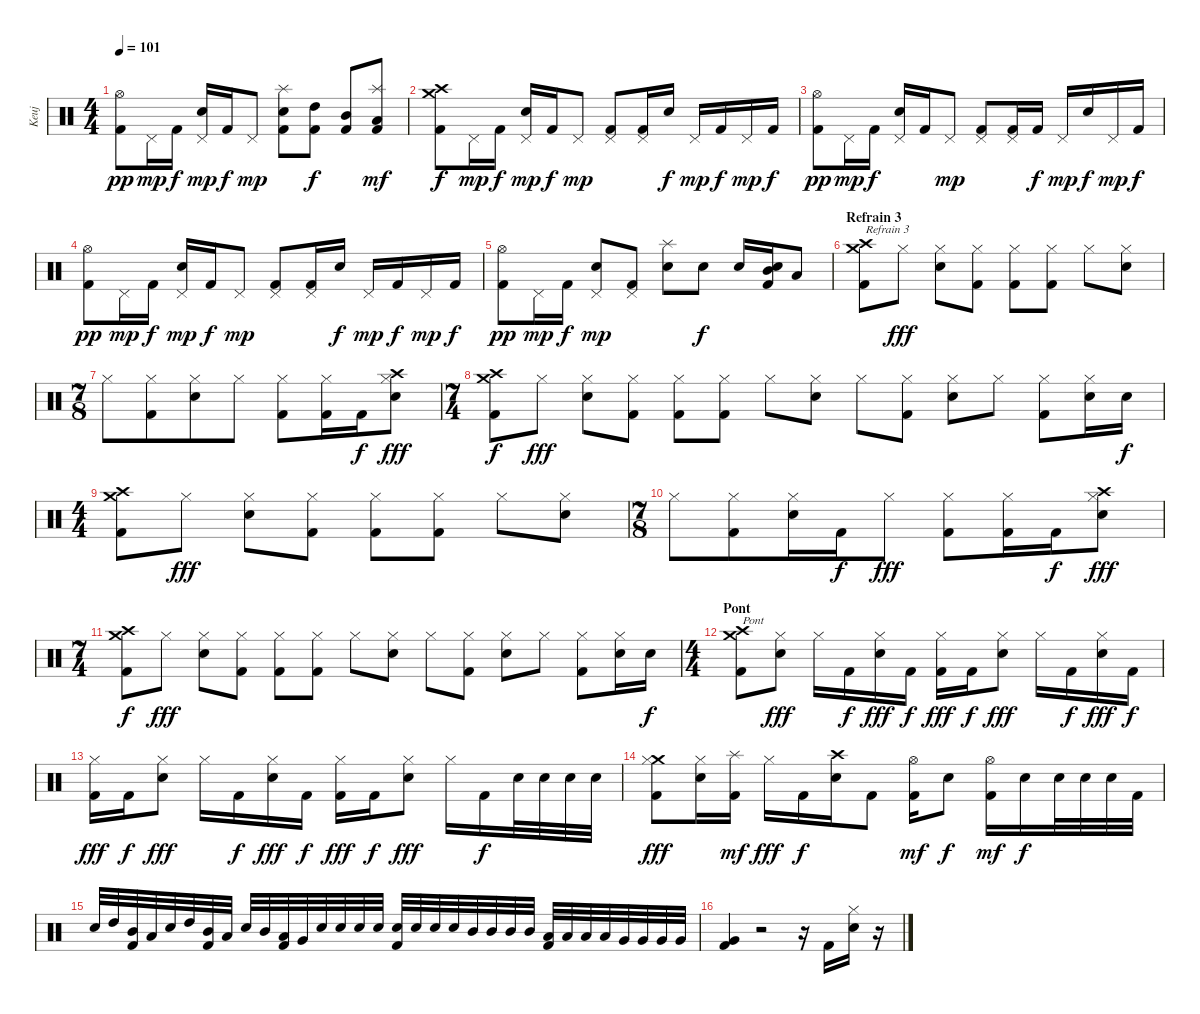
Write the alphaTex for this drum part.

\track ("Keuj" "Keuj") {instrument percussion}
\staff {score}
\articulation defaults
\ts (4 4)
\tempo 101
\clef neutral
\ks c
("Hi-Hat (open)" "Kick (hit) 2").8{dy pp} "Pedal Hi-Hat (hit)".16{dy mp} "Kick (hit) 2".16{dy f} ("Electric Snare (hit)" "Pedal Hi-Hat (hit)").16{dy mp} "Kick (hit) 2".16{dy f} "Pedal Hi-Hat (hit)".8{dy mp} ("Splash (hit)" "Electric Snare (hit)" "Kick (hit) 2").8 ("High Tom (hit)" "Kick (hit) 2").8{dy f} ("Mid Tom (hit)" "Kick (hit) 2").8 ("Splash (hit)" "Low Tom (hit)" "Kick (hit) 2").8{dy mf} |
("Crash medium (hit)" "Crash high (hit)" "Kick (hit) 2").8{dy f} "Pedal Hi-Hat (hit)".16{dy mp} "Kick (hit) 2".16{dy f} ("Electric Snare (hit)" "Pedal Hi-Hat (hit)").16{dy mp} "Kick (hit) 2".16{dy f} "Pedal Hi-Hat (hit)".8{dy mp} ("Pedal Hi-Hat (hit)" "Kick (hit) 2").8 ("Pedal Hi-Hat (hit)" "Kick (hit) 2").16 "Electric Snare (hit)".16{dy f} "Pedal Hi-Hat (hit)".16{dy mp} "Kick (hit) 2".16{dy f} "Pedal Hi-Hat (hit)".16{dy mp} "Kick (hit) 2".16{dy f} |
("Hi-Hat (open)" "Kick (hit) 2").8{dy pp} "Pedal Hi-Hat (hit)".16{dy mp} "Kick (hit) 2".16{dy f} ("Electric Snare (hit)" "Pedal Hi-Hat (hit)").16 "Kick (hit) 2".16 "Pedal Hi-Hat (hit)".8{dy mp} ("Pedal Hi-Hat (hit)" "Kick (hit) 2").8 ("Pedal Hi-Hat (hit)" "Kick (hit) 2").16 "Kick (hit) 2".16{dy f} "Pedal Hi-Hat (hit)".16{dy mp} "Electric Snare (hit)".16{dy f} "Pedal Hi-Hat (hit)".16{dy mp} "Kick (hit) 2".16{dy f} |
("Hi-Hat (open)" "Kick (hit) 2").8{dy pp} "Pedal Hi-Hat (hit)".16{dy mp} "Kick (hit) 2".16{dy f} ("Electric Snare (hit)" "Pedal Hi-Hat (hit)").16{dy mp} "Kick (hit) 2".16{dy f} "Pedal Hi-Hat (hit)".8{dy mp} ("Pedal Hi-Hat (hit)" "Kick (hit) 2").8 ("Pedal Hi-Hat (hit)" "Kick (hit) 2").16 "Electric Snare (hit)".16{dy f} "Pedal Hi-Hat (hit)".16{dy mp} "Kick (hit) 2".16{dy f} "Pedal Hi-Hat (hit)".16{dy mp} "Kick (hit) 2".16{dy f} |
("Hi-Hat (open)" "Kick (hit) 2").8{dy pp} "Pedal Hi-Hat (hit)".16{dy mp} "Kick (hit) 2".16{dy f} ("Electric Snare (hit)" "Pedal Hi-Hat (hit)").8{dy mp} ("Pedal Hi-Hat (hit)" "Kick (hit) 2").8 ("Splash (hit)" "Electric Snare (hit)").8 "Electric Snare (hit)".8{dy f} "Electric Snare (hit)".16 ("Mid Tom (hit)" "Electric Snare (hit)" "Kick (hit) 2").16 "Low Tom (hit)".8 |
\section ("" "Refrain 3")
("Crash medium (hit)" "Crash high (hit)" "Kick (hit) 2").8{txt "Refrain 3"} "Hi-Hat (closed)".8{dy fff} ("Electric Snare (hit)" "Hi-Hat (closed)").8 ("Hi-Hat (closed)" "Kick (hit) 2").8 ("Hi-Hat (closed)" "Kick (hit) 2").8 ("Hi-Hat (closed)" "Kick (hit) 2").8 "Hi-Hat (closed)".8 ("Electric Snare (hit)" "Hi-Hat (closed)").8 |
\ts (7 8)
"Hi-Hat (closed)".8 ("Hi-Hat (closed)" "Kick (hit) 2").8 ("Electric Snare (hit)" "Hi-Hat (closed)").8 "Hi-Hat (closed)".8 ("Hi-Hat (closed)" "Kick (hit) 2").8 ("Hi-Hat (closed)" "Kick (hit) 2").16 "Kick (hit) 2".16{dy f} ("Crash high (hit)" "Electric Snare (hit)" "Hi-Hat (closed)").8{dy fff} |
\ts (7 4)
("Crash medium (hit)" "Crash high (hit)" "Kick (hit) 2").8{dy f} "Hi-Hat (closed)".8{dy fff} ("Electric Snare (hit)" "Hi-Hat (closed)").8 ("Hi-Hat (closed)" "Kick (hit) 2").8 ("Hi-Hat (closed)" "Kick (hit) 2").8 ("Hi-Hat (closed)" "Kick (hit) 2").8 "Hi-Hat (closed)".8 ("Electric Snare (hit)" "Hi-Hat (closed)").8 "Hi-Hat (closed)".8 ("Hi-Hat (closed)" "Kick (hit) 2").8 ("Electric Snare (hit)" "Hi-Hat (closed)").8 "Hi-Hat (closed)".8 ("Hi-Hat (closed)" "Kick (hit) 2").8 ("Electric Snare (hit)" "Hi-Hat (closed)").16 "Electric Snare (hit)".16{dy f} |
\ts (4 4)
("Crash medium (hit)" "Crash high (hit)" "Kick (hit) 2").8 "Hi-Hat (closed)".8{dy fff} ("Electric Snare (hit)" "Hi-Hat (closed)").8 ("Hi-Hat (closed)" "Kick (hit) 2").8 ("Hi-Hat (closed)" "Kick (hit) 2").8 ("Hi-Hat (closed)" "Kick (hit) 2").8 "Hi-Hat (closed)".8 ("Electric Snare (hit)" "Hi-Hat (closed)").8 |
\ts (7 8)
"Hi-Hat (closed)".8 ("Hi-Hat (closed)" "Kick (hit) 2").8 ("Electric Snare (hit)" "Hi-Hat (closed)").16 "Kick (hit) 2".16{dy f} "Hi-Hat (closed)".8{dy fff} ("Hi-Hat (closed)" "Kick (hit) 2").8 ("Hi-Hat (closed)" "Kick (hit) 2").16 "Kick (hit) 2".16{dy f} ("Crash high (hit)" "Electric Snare (hit)" "Hi-Hat (closed)").8{dy fff} |
\ts (7 4)
("Crash medium (hit)" "Crash high (hit)" "Kick (hit) 2").8{dy f} "Hi-Hat (closed)".8{dy fff} ("Electric Snare (hit)" "Hi-Hat (closed)").8 ("Hi-Hat (closed)" "Kick (hit) 2").8 ("Hi-Hat (closed)" "Kick (hit) 2").8 ("Hi-Hat (closed)" "Kick (hit) 2").8 "Hi-Hat (closed)".8 ("Electric Snare (hit)" "Hi-Hat (closed)").8 "Hi-Hat (closed)".8 ("Hi-Hat (closed)" "Kick (hit) 2").8 ("Electric Snare (hit)" "Hi-Hat (closed)").8 "Hi-Hat (closed)".8 ("Hi-Hat (closed)" "Kick (hit) 2").8 ("Electric Snare (hit)" "Hi-Hat (closed)").16 "Electric Snare (hit)".16{dy f} |
\ts (4 4)
\section ("" "Pont ")
("Crash medium (hit)" "Crash high (hit)" "Kick (hit) 2").8{txt "Pont "} ("Electric Snare (hit)" "Hi-Hat (closed)").8{dy fff} "Hi-Hat (closed)".16 "Kick (hit) 2".16{dy f} ("Electric Snare (hit)" "Hi-Hat (closed)").16{dy fff} "Kick (hit) 2".16{dy f} ("Hi-Hat (closed)" "Kick (hit) 2").16{dy fff} "Kick (hit) 2".16{dy f} ("Electric Snare (hit)" "Hi-Hat (closed)").8{dy fff} "Hi-Hat (closed)".16 "Kick (hit) 2".16{dy f} ("Electric Snare (hit)" "Hi-Hat (closed)").16{dy fff} "Kick (hit) 2".16{dy f} |
("Hi-Hat (closed)" "Kick (hit) 2").16{dy fff} "Kick (hit) 2".16{dy f} ("Electric Snare (hit)" "Hi-Hat (closed)").8{dy fff} "Hi-Hat (closed)".16 "Kick (hit) 2".16{dy f} ("Electric Snare (hit)" "Hi-Hat (closed)").16{dy fff} "Kick (hit) 2".16{dy f} ("Hi-Hat (closed)" "Kick (hit) 2").16{dy fff} "Kick (hit) 2".16{dy f} ("Electric Snare (hit)" "Hi-Hat (closed)").8{dy fff} "Hi-Hat (closed)".16 "Kick (hit) 2".16{dy f} "Electric Snare (hit)".32 "Electric Snare (hit)".32 "Electric Snare (hit)".32 "Electric Snare (hit)".32 |
("Crash medium (hit)" "Hi-Hat (closed)" "Kick (hit) 2").8{dy fff} ("Electric Snare (hit)" "Hi-Hat (closed)").16 ("Splash (hit)" "Kick (hit) 2").16{dy mf} "Hi-Hat (closed)".16{dy fff} "Kick (hit) 2".16{dy f} ("Crash high (hit)" "Electric Snare (hit)").16 "Kick (hit) 2".8 ("Hi-Hat (open)" "Kick (hit) 2").16{dy mf} "Electric Snare (hit)".8{dy f} ("Hi-Hat (open)" "Kick (hit) 2").16{dy mf} "Electric Snare (hit)".16{dy f} "Electric Snare (hit)".32 "Electric Snare (hit)".32 "Electric Snare (hit)".32 "Kick (hit) 2".32 |
"Electric Snare (hit)".32 "High Tom (hit)".32 ("Mid Tom (hit)" "Kick (hit) 2").32 "Low Tom (hit)".32 "Electric Snare (hit)".32 "High Tom (hit)".32 ("Mid Tom (hit)" "Kick (hit) 2").32 "Low Tom (hit)".32 "Electric Snare (hit)".32 "Mid Tom (hit)".32 ("Low Tom (hit)" "Kick (hit) 2").32 "Very Low Tom (hit)".32 "Electric Snare (hit)".32 "Electric Snare (hit)".32 "Electric Snare (hit)".32 "Electric Snare (hit)".32 ("Electric Snare (hit)" "Kick (hit) 2").32 "Electric Snare (hit)".32 "Electric Snare (hit)".32 "Electric Snare (hit)".32 "Mid Tom (hit)".32 "Mid Tom (hit)".32 "Mid Tom (hit)".32 "Mid Tom (hit)".32 ("Low Tom (hit)" "Kick (hit) 2").32 "Low Tom (hit)".32 "Low Tom (hit)".32 "Low Tom (hit)".32 "Very Low Tom (hit)".32 "Very Low Tom (hit)".32 "Very Low Tom (hit)".32 "Very Low Tom (hit)".32 |
("Very Low Tom (hit)" "Kick (hit) 2").4 r.2 r.16 "Kick (hit) 2".16 ("Electric Snare (hit)" "Hi-Hat (closed)").16 r.16
